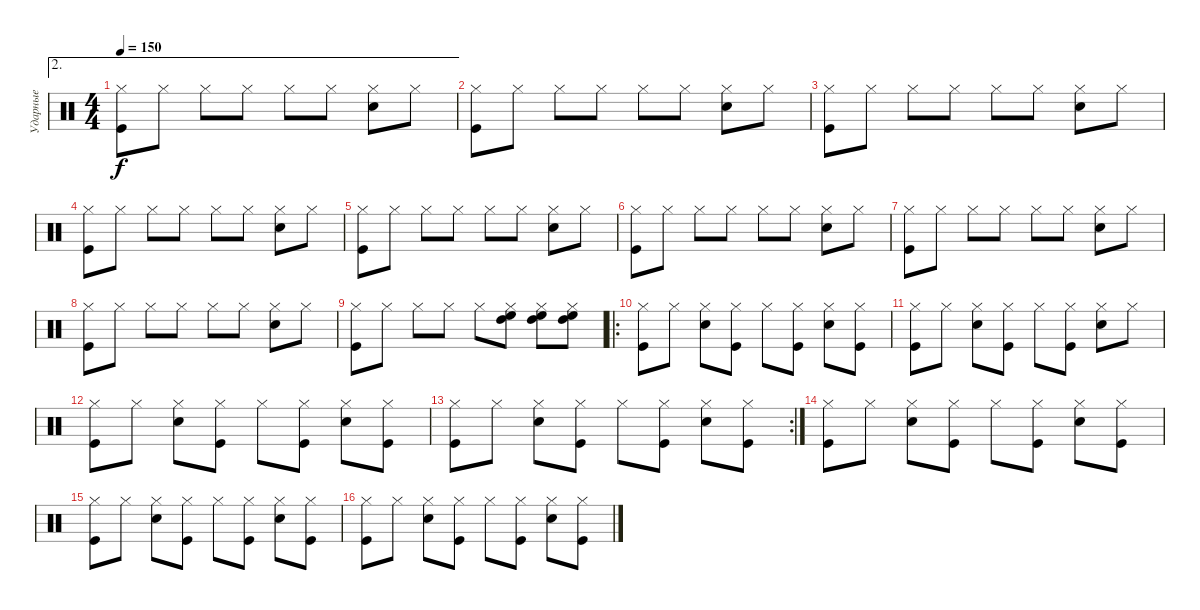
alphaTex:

\track ("Ударные" "Ударные") {instrument percussion}
\staff {score}
\articulation defaults
\ae 2
\ts (4 4)
\tempo 150
\clef neutral
\ks c
("Kick (hit)" "Hi-Hat (closed)").8{dy f} "Hi-Hat (closed)".8 "Hi-Hat (closed)".8 "Hi-Hat (closed)".8 "Hi-Hat (closed)".8 "Hi-Hat (closed)".8 ("Hi-Hat (closed)" "Snare (hit) 2").8 "Hi-Hat (closed)".8 |
("Kick (hit)" "Hi-Hat (closed)").8 "Hi-Hat (closed)".8 "Hi-Hat (closed)".8 "Hi-Hat (closed)".8 "Hi-Hat (closed)".8 "Hi-Hat (closed)".8 ("Snare (hit) 2" "Hi-Hat (closed)").8 "Hi-Hat (closed)".8 |
("Kick (hit)" "Hi-Hat (closed)").8 "Hi-Hat (closed)".8 "Hi-Hat (closed)".8 "Hi-Hat (closed)".8 "Hi-Hat (closed)".8 "Hi-Hat (closed)".8 ("Snare (hit) 2" "Hi-Hat (closed)").8 "Hi-Hat (closed)".8 |
("Hi-Hat (closed)" "Kick (hit)").8 "Hi-Hat (closed)".8 "Hi-Hat (closed)".8 "Hi-Hat (closed)".8 "Hi-Hat (closed)".8 "Hi-Hat (closed)".8 ("Hi-Hat (closed)" "Snare (hit) 2").8 "Hi-Hat (closed)".8 |
("Kick (hit)" "Hi-Hat (closed)").8 "Hi-Hat (closed)".8 "Hi-Hat (closed)".8 "Hi-Hat (closed)".8 "Hi-Hat (closed)".8 "Hi-Hat (closed)".8 ("Hi-Hat (closed)" "Snare (hit) 2").8 "Hi-Hat (closed)".8 |
("Hi-Hat (closed)" "Kick (hit)").8 "Hi-Hat (closed)".8 "Hi-Hat (closed)".8 "Hi-Hat (closed)".8 "Hi-Hat (closed)".8 "Hi-Hat (closed)".8 ("Hi-Hat (closed)" "Snare (hit) 2").8 "Hi-Hat (closed)".8 |
("Hi-Hat (closed)" "Kick (hit)").8 "Hi-Hat (closed)".8 "Hi-Hat (closed)".8 "Hi-Hat (closed)".8 "Hi-Hat (closed)".8 "Hi-Hat (closed)".8 ("Hi-Hat (closed)" "Snare (hit) 2").8 "Hi-Hat (closed)".8 |
("Hi-Hat (closed)" "Kick (hit)").8 "Hi-Hat (closed)".8 "Hi-Hat (closed)".8 "Hi-Hat (closed)".8 "Hi-Hat (closed)".8 "Hi-Hat (closed)".8 ("Hi-Hat (closed)" "Snare (hit) 2").8 "Hi-Hat (closed)".8 |
("Kick (hit)" "Hi-Hat (closed)").8 "Hi-Hat (closed)".8 "Hi-Hat (closed)".8 "Hi-Hat (closed)".8 "Hi-Hat (closed)".8 ("Hi-Hat (closed)" "High Tom (hit)" "High Floor Tom (hit)").8 ("Hi-Hat (closed)" "High Tom (hit)" "High Floor Tom (hit)").8 ("Hi-Hat (closed)" "High Tom (hit)" "High Floor Tom (hit)").8 |
\ro
("Hi-Hat (closed)" "Kick (hit)").8 "Hi-Hat (closed)".8 ("Hi-Hat (closed)" "Snare (hit) 2").8 ("Hi-Hat (closed)" "Kick (hit)").8 "Hi-Hat (closed)".8 ("Hi-Hat (closed)" "Kick (hit)").8 ("Hi-Hat (closed)" "Snare (hit) 2").8 ("Hi-Hat (closed)" "Kick (hit)").8 |
("Hi-Hat (closed)" "Kick (hit)").8 "Hi-Hat (closed)".8 ("Hi-Hat (closed)" "Snare (hit) 2").8 ("Hi-Hat (closed)" "Kick (hit)").8 "Hi-Hat (closed)".8 ("Hi-Hat (closed)" "Kick (hit)").8 ("Hi-Hat (closed)" "Snare (hit) 2").8 "Hi-Hat (closed)".8 |
("Hi-Hat (closed)" "Kick (hit)").8 "Hi-Hat (closed)".8 ("Hi-Hat (closed)" "Snare (hit) 2").8 ("Hi-Hat (closed)" "Kick (hit)").8 "Hi-Hat (closed)".8 ("Hi-Hat (closed)" "Kick (hit)").8 ("Hi-Hat (closed)" "Snare (hit) 2").8 ("Hi-Hat (closed)" "Kick (hit)").8 |
\rc 2
("Hi-Hat (closed)" "Kick (hit)").8 "Hi-Hat (closed)".8 ("Hi-Hat (closed)" "Snare (hit) 2").8 ("Hi-Hat (closed)" "Kick (hit)").8 "Hi-Hat (closed)".8 ("Hi-Hat (closed)" "Kick (hit)").8 ("Hi-Hat (closed)" "Snare (hit) 2").8 ("Hi-Hat (closed)" "Kick (hit)").8 |
("Hi-Hat (closed)" "Kick (hit)").8 "Hi-Hat (closed)".8 ("Hi-Hat (closed)" "Snare (hit) 2").8 ("Hi-Hat (closed)" "Kick (hit)").8 "Hi-Hat (closed)".8 ("Hi-Hat (closed)" "Kick (hit)").8 ("Hi-Hat (closed)" "Snare (hit) 2").8 ("Hi-Hat (closed)" "Kick (hit)").8 |
("Hi-Hat (closed)" "Kick (hit)").8 "Hi-Hat (closed)".8 ("Hi-Hat (closed)" "Snare (hit) 2").8 ("Hi-Hat (closed)" "Kick (hit)").8 "Hi-Hat (closed)".8 ("Hi-Hat (closed)" "Kick (hit)").8 ("Hi-Hat (closed)" "Snare (hit) 2").8 ("Hi-Hat (closed)" "Kick (hit)").8 |
("Hi-Hat (closed)" "Kick (hit)").8 "Hi-Hat (closed)".8 ("Hi-Hat (closed)" "Snare (hit) 2").8 ("Hi-Hat (closed)" "Kick (hit)").8 "Hi-Hat (closed)".8 ("Hi-Hat (closed)" "Kick (hit)").8 ("Hi-Hat (closed)" "Snare (hit) 2").8 ("Hi-Hat (closed)" "Kick (hit)").8
